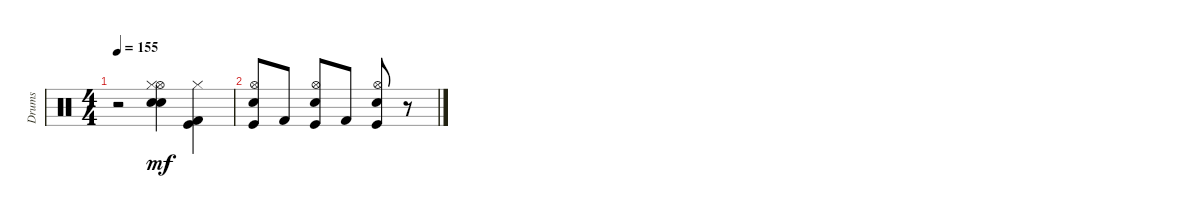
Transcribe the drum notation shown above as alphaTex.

\track ("Drums" "Drums") {instrument percussion}
\staff {score}
\articulation defaults
\ts (4 4)
\tempo 155
\clef neutral
\ks c
r.2{dy f} ("Electric Snare (hit)" "Electric Snare (hit)" "Hi-Hat (open)" "Hi-Hat (closed)").4{dy mf} ("Hi-Hat (closed)" "Kick (hit)" "Kick (hit) 2").4 |
("Hi-Hat (open)" "Kick (hit)" "Electric Snare (hit)").8 "Kick (hit) 2".8 ("Hi-Hat (open)" "Kick (hit)" "Electric Snare (hit)").8 "Kick (hit) 2".8 ("Hi-Hat (open)" "Kick (hit)" "Electric Snare (hit)").8 r.8
